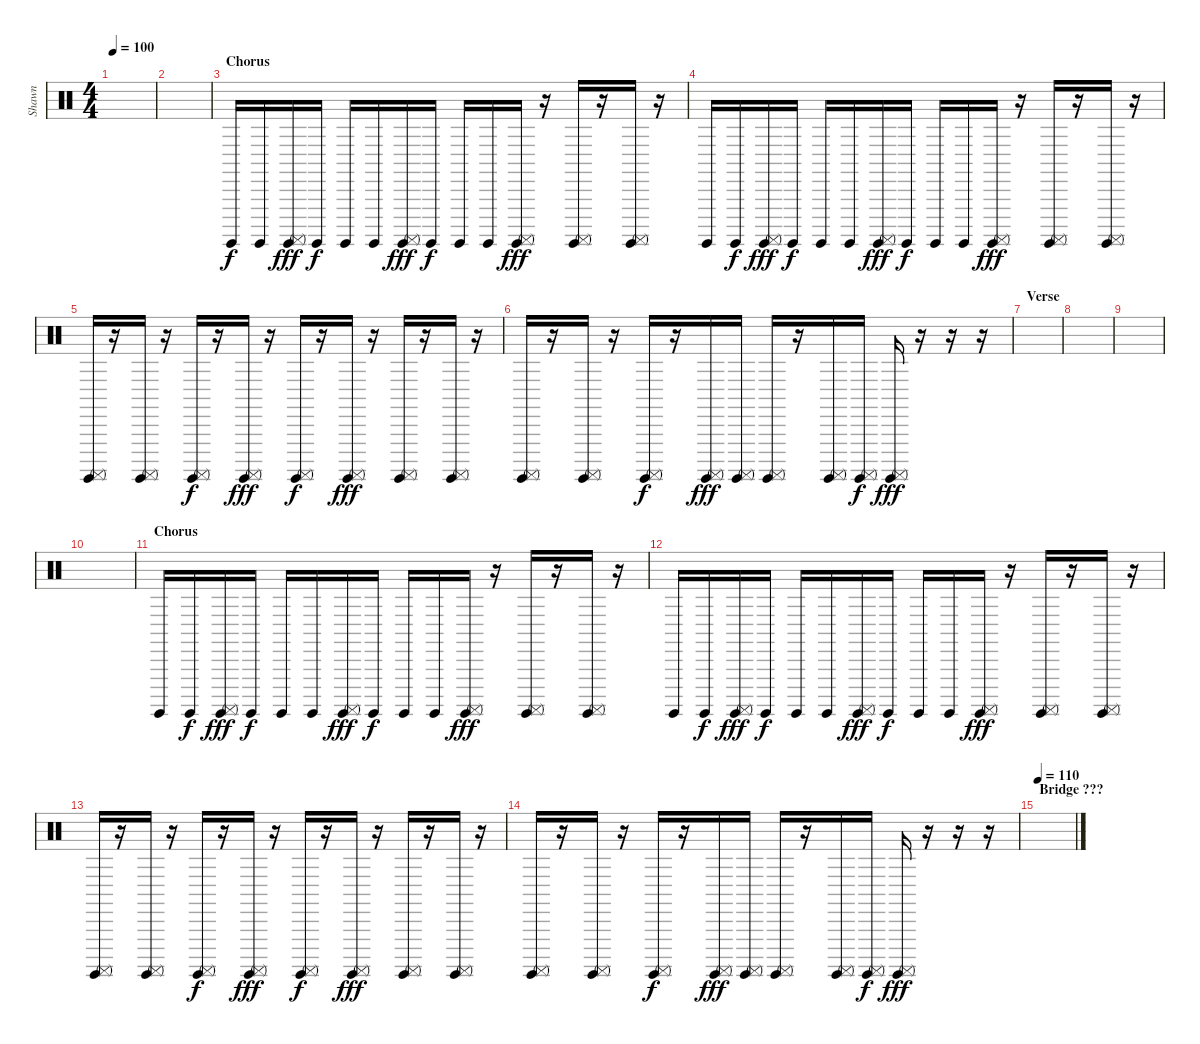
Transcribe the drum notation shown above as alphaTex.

\track ("Shawn" "Shawn") {instrument percussion}
\staff {score}
\articulation defaults
\ts (4 4)
\tempo 100
\clef neutral
\ks c
|
|
\section ("" "Chorus")
"Surdo (hit)".16 "Surdo (hit)".16{dy f} ("Surdo (hit)" "Surdo (mute)").16{dy fff} "Surdo (hit)".16{dy f} "Surdo (hit)".16 "Surdo (hit)".16 ("Surdo (hit)" "Surdo (mute)").16{dy fff} "Surdo (hit)".16{dy f} "Surdo (hit)".16 "Surdo (hit)".16 ("Surdo (hit)" "Surdo (mute)").16{dy fff} r.16 ("Surdo (hit)" "Surdo (mute)").16 r.16 ("Surdo (hit)" "Surdo (mute)").16 r.16 |
"Surdo (hit)".16 "Surdo (hit)".16{dy f} ("Surdo (hit)" "Surdo (mute)").16{dy fff} "Surdo (hit)".16{dy f} "Surdo (hit)".16 "Surdo (hit)".16 ("Surdo (hit)" "Surdo (mute)").16{dy fff} "Surdo (hit)".16{dy f} "Surdo (hit)".16 "Surdo (hit)".16 ("Surdo (hit)" "Surdo (mute)").16{dy fff} r.16 ("Surdo (hit)" "Surdo (mute)").16 r.16 ("Surdo (hit)" "Surdo (mute)").16 r.16 |
("Surdo (hit)" "Surdo (mute)").16 r.16 ("Surdo (hit)" "Surdo (mute)").16 r.16 ("Surdo (hit)" "Surdo (mute)").16{dy f} r.16 ("Surdo (hit)" "Surdo (mute)").16{dy fff} r.16 ("Surdo (hit)" "Surdo (mute)").16{dy f} r.16 ("Surdo (hit)" "Surdo (mute)").16{dy fff} r.16 ("Surdo (hit)" "Surdo (mute)").16 r.16 ("Surdo (hit)" "Surdo (mute)").16 r.16 |
("Surdo (hit)" "Surdo (mute)").16 r.16 ("Surdo (hit)" "Surdo (mute)").16 r.16 ("Surdo (hit)" "Surdo (mute)").16{dy f} r.16 ("Surdo (hit)" "Surdo (mute)").16{dy fff} ("Surdo (hit)" "Surdo (mute)").16 ("Surdo (hit)" "Surdo (mute)").16 r.16 ("Surdo (hit)" "Surdo (mute)").16 ("Surdo (hit)" "Surdo (mute)").16{dy f} ("Surdo (hit)" "Surdo (mute)").16{dy fff} r.16 r.16 r.16 |
\section ("" "Verse")
|
|
|
|
\section ("" "Chorus")
"Surdo (hit)".16 "Surdo (hit)".16{dy f} ("Surdo (hit)" "Surdo (mute)").16{dy fff} "Surdo (hit)".16{dy f} "Surdo (hit)".16 "Surdo (hit)".16 ("Surdo (hit)" "Surdo (mute)").16{dy fff} "Surdo (hit)".16{dy f} "Surdo (hit)".16 "Surdo (hit)".16 ("Surdo (hit)" "Surdo (mute)").16{dy fff} r.16 ("Surdo (hit)" "Surdo (mute)").16 r.16 ("Surdo (hit)" "Surdo (mute)").16 r.16 |
"Surdo (hit)".16 "Surdo (hit)".16{dy f} ("Surdo (hit)" "Surdo (mute)").16{dy fff} "Surdo (hit)".16{dy f} "Surdo (hit)".16 "Surdo (hit)".16 ("Surdo (hit)" "Surdo (mute)").16{dy fff} "Surdo (hit)".16{dy f} "Surdo (hit)".16 "Surdo (hit)".16 ("Surdo (hit)" "Surdo (mute)").16{dy fff} r.16 ("Surdo (hit)" "Surdo (mute)").16 r.16 ("Surdo (hit)" "Surdo (mute)").16 r.16 |
("Surdo (hit)" "Surdo (mute)").16 r.16 ("Surdo (hit)" "Surdo (mute)").16 r.16 ("Surdo (hit)" "Surdo (mute)").16{dy f} r.16 ("Surdo (hit)" "Surdo (mute)").16{dy fff} r.16 ("Surdo (hit)" "Surdo (mute)").16{dy f} r.16 ("Surdo (hit)" "Surdo (mute)").16{dy fff} r.16 ("Surdo (hit)" "Surdo (mute)").16 r.16 ("Surdo (hit)" "Surdo (mute)").16 r.16 |
("Surdo (hit)" "Surdo (mute)").16 r.16 ("Surdo (hit)" "Surdo (mute)").16 r.16 ("Surdo (hit)" "Surdo (mute)").16{dy f} r.16 ("Surdo (hit)" "Surdo (mute)").16{dy fff} ("Surdo (hit)" "Surdo (mute)").16 ("Surdo (hit)" "Surdo (mute)").16 r.16 ("Surdo (hit)" "Surdo (mute)").16 ("Surdo (hit)" "Surdo (mute)").16{dy f} ("Surdo (hit)" "Surdo (mute)").16{dy fff} r.16 r.16 r.16 |
\section ("" "Bridge ???")
\tempo 110
